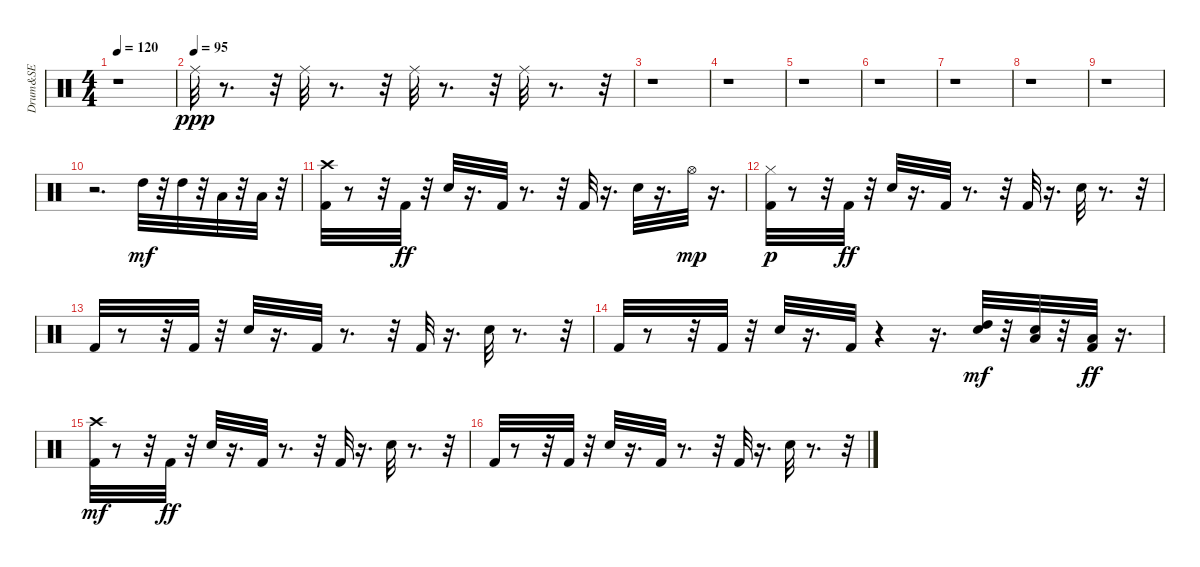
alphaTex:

\track ("Drum&SE" "Drum&SE") {instrument percussion}
\staff {score}
\articulation defaults
\ts (4 4)
\tempo 120
\clef neutral
\ks c
r.1{dy ppp} |
\tempo (95)
"Ride (middle)".32 r.8{d} r.32 "Ride (middle)".32 r.8{d} r.32 "Ride (middle)".32 r.8{d} r.32 "Ride (middle)".32 r.8{d} r.32 |
r.1 |
r.1 |
r.1 |
r.1 |
r.1 |
r.1 |
r.1 |
r.2{d} "High Tom (hit)".32{dy mf} r.32 "High Tom (hit)".32 r.32 "Low Floor Tom (hit)".32 r.32 "Low Tom (hit)".32 r.32 |
("Kick (hit) 2" "Crash high (hit)").32 r.8 r.32 "Kick (hit) 2".32{dy ff} r.32 "Snare (hit) 2".32 r.16{d} "Kick (hit) 2".32 r.8{d} r.32 "Kick (hit) 2".32 r.16{d} "Snare (hit) 2".32 r.16{d} "Hi-Hat (open)".32{dy mp} r.16{d} |
("Kick (hit) 2" "Hi-Hat (closed)").32{dy p} r.8 r.32 "Kick (hit) 2".32{dy ff} r.32 "Snare (hit) 2".32 r.16{d} "Kick (hit) 2".32 r.8{d} r.32 "Kick (hit) 2".32 r.16{d} "Snare (hit) 2".32 r.8{d} r.32 |
"Kick (hit) 2".32 r.8 r.32 "Kick (hit) 2".32 r.32 "Snare (hit) 2".32 r.16{d} "Kick (hit) 2".32 r.8{d} r.32 "Kick (hit) 2".32 r.16{d} "Snare (hit) 2".32 r.8{d} r.32 |
"Kick (hit) 2".32 r.8 r.32 "Kick (hit) 2".32 r.32 "Snare (hit) 2".32 r.16{d} "Kick (hit) 2".32 r.4 r.16{d} ("Snare (hit) 2" "High Tom (hit)").32{dy mf} r.32 ("Snare (hit) 2" "Low Tom (hit)").32 r.32 ("Kick (hit) 2" "Low Floor Tom (hit)").32{dy ff} r.16{d} |
("Kick (hit) 2" "Crash high (hit)").32{dy mf} r.8 r.32 "Kick (hit) 2".32{dy ff} r.32 "Snare (hit) 2".32 r.16{d} "Kick (hit) 2".32 r.8{d} r.32 "Kick (hit) 2".32 r.16{d} "Snare (hit) 2".32 r.8{d} r.32 |
"Kick (hit) 2".32 r.8 r.32 "Kick (hit) 2".32 r.32 "Snare (hit) 2".32 r.16{d} "Kick (hit) 2".32 r.8{d} r.32 "Kick (hit) 2".32 r.16{d} "Snare (hit) 2".32 r.8{d} r.32
